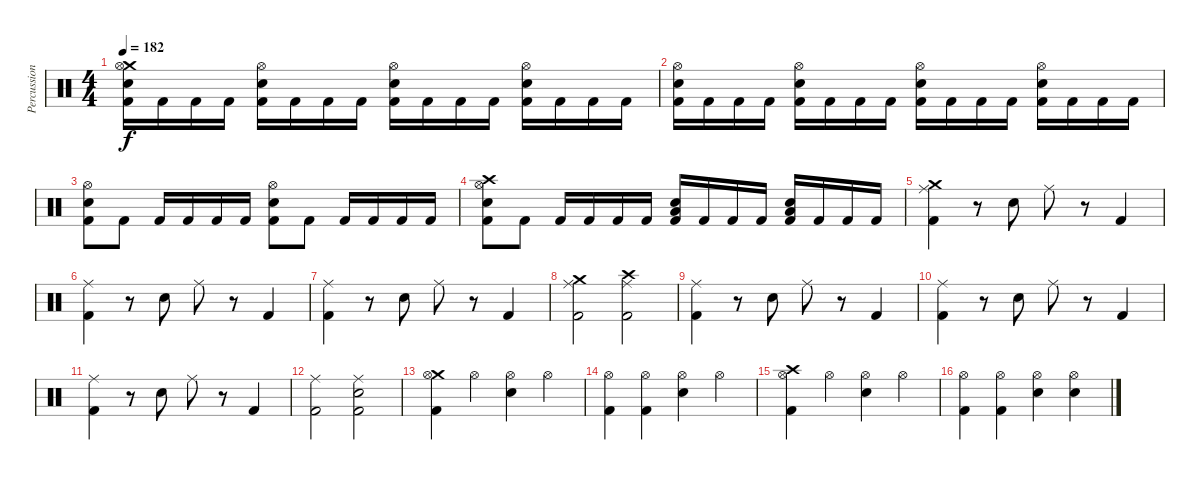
\track ("Percussion" "Percussion") {instrument percussion}
\staff {score}
\articulation defaults
\ts (4 4)
\tempo 182
\clef neutral
\ks c
("Crash medium (hit)" "Hi-Hat (open)" "Electric Snare (hit)" "Kick (hit) 2").16{dy f} "Kick (hit) 2".16 "Kick (hit) 2".16 "Kick (hit) 2".16 ("Hi-Hat (open)" "Electric Snare (hit)" "Kick (hit) 2").16 "Kick (hit) 2".16 "Kick (hit) 2".16 "Kick (hit) 2".16 ("Hi-Hat (open)" "Electric Snare (hit)" "Kick (hit) 2").16 "Kick (hit) 2".16 "Kick (hit) 2".16 "Kick (hit) 2".16 ("Hi-Hat (open)" "Electric Snare (hit)" "Kick (hit) 2").16 "Kick (hit) 2".16 "Kick (hit) 2".16 "Kick (hit) 2".16 |
("Hi-Hat (open)" "Electric Snare (hit)" "Kick (hit) 2").16 "Kick (hit) 2".16 "Kick (hit) 2".16 "Kick (hit) 2".16 ("Hi-Hat (open)" "Electric Snare (hit)" "Kick (hit) 2").16 "Kick (hit) 2".16 "Kick (hit) 2".16 "Kick (hit) 2".16 ("Hi-Hat (open)" "Electric Snare (hit)" "Kick (hit) 2").16 "Kick (hit) 2".16 "Kick (hit) 2".16 "Kick (hit) 2".16 ("Hi-Hat (open)" "Electric Snare (hit)" "Kick (hit) 2").16 "Kick (hit) 2".16 "Kick (hit) 2".16 "Kick (hit) 2".16 |
("Hi-Hat (open)" "Electric Snare (hit)" "Kick (hit) 2").8 "Kick (hit) 2".8 "Kick (hit) 2".16 "Kick (hit) 2".16 "Kick (hit) 2".16 "Kick (hit) 2".16 ("Hi-Hat (open)" "Electric Snare (hit)" "Kick (hit) 2").8 "Kick (hit) 2".8 "Kick (hit) 2".16 "Kick (hit) 2".16 "Kick (hit) 2".16 "Kick (hit) 2".16 |
("Crash high (hit)" "Hi-Hat (open)" "Electric Snare (hit)" "Kick (hit) 2").8 "Kick (hit) 2".8 "Kick (hit) 2".16 "Kick (hit) 2".16 "Kick (hit) 2".16 "Kick (hit) 2".16 ("Low Tom (hit)" "Electric Snare (hit)" "Kick (hit) 2").16 "Kick (hit) 2".16 "Kick (hit) 2".16 "Kick (hit) 2".16 ("Low Tom (hit)" "Electric Snare (hit)" "Kick (hit) 2").16 "Kick (hit) 2".16 "Kick (hit) 2".16 "Kick (hit) 2".16 |
("Crash medium (hit)" "Ride (middle)" "Kick (hit) 2").4 r.8 "Electric Snare (hit)".8 "Ride (middle)".8 r.8 "Kick (hit) 2".4 |
("Ride (middle)" "Kick (hit) 2").4 r.8 "Electric Snare (hit)".8 "Ride (middle)".8 r.8 "Kick (hit) 2".4 |
("Ride (middle)" "Kick (hit) 2").4 r.8 "Electric Snare (hit)".8 "Ride (middle)".8 r.8 "Kick (hit) 2".4 |
("Crash medium (hit)" "Ride (middle)" "Kick (hit) 2").2 ("Crash high (hit)" "Ride (middle)" "Kick (hit) 2").2 |
("Ride (middle)" "Kick (hit) 2").4 r.8 "Electric Snare (hit)".8 "Ride (middle)".8 r.8 "Kick (hit) 2".4 |
("Ride (middle)" "Kick (hit) 2").4 r.8 "Electric Snare (hit)".8 "Ride (middle)".8 r.8 "Kick (hit) 2".4 |
("Ride (middle)" "Kick (hit) 2").4 r.8 "Electric Snare (hit)".8 "Ride (middle)".8 r.8 "Kick (hit) 2".4 |
("Ride (middle)" "Kick (hit) 2").2 ("Ride (middle)" "Electric Snare (hit)" "Kick (hit) 2").2 |
("Crash medium (hit)" "Hi-Hat (open)" "Kick (hit) 2").4 "Hi-Hat (open)".4 ("Hi-Hat (open)" "Electric Snare (hit)").4 "Hi-Hat (open)".4 |
("Hi-Hat (open)" "Kick (hit) 2").4 ("Hi-Hat (open)" "Kick (hit) 2").4 ("Hi-Hat (open)" "Electric Snare (hit)").4 "Hi-Hat (open)".4 |
("Crash high (hit)" "Hi-Hat (open)" "Kick (hit) 2").4 "Hi-Hat (open)".4 ("Hi-Hat (open)" "Electric Snare (hit)").4 "Hi-Hat (open)".4 |
("Hi-Hat (open)" "Kick (hit) 2").4 ("Hi-Hat (open)" "Kick (hit) 2").4 ("Hi-Hat (open)" "Electric Snare (hit)").4 ("Hi-Hat (open)" "Electric Snare (hit)").4
